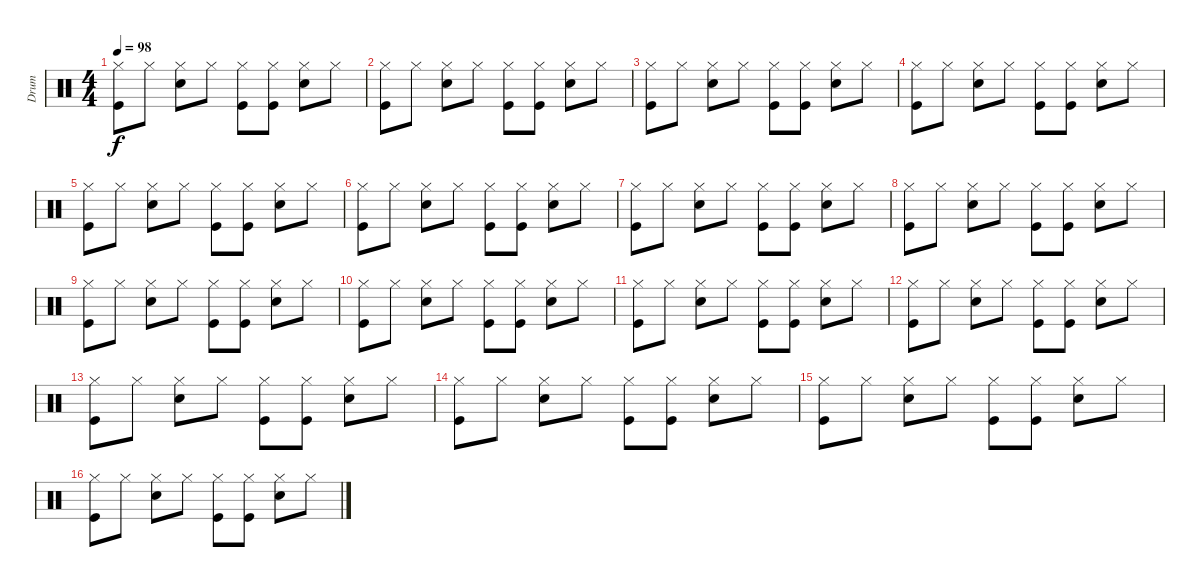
\track ("Drum" "Drum") {instrument percussion}
\staff {score}
\articulation defaults
\ts (4 4)
\tempo 98
\clef neutral
\ks c
("Hi-Hat (closed)" "Kick (hit)").8{dy f} "Hi-Hat (closed)".8 ("Hi-Hat (closed)" "Snare (hit) 2").8 "Hi-Hat (closed)".8 ("Hi-Hat (closed)" "Kick (hit)").8 ("Hi-Hat (closed)" "Kick (hit)").8 ("Hi-Hat (closed)" "Snare (hit) 2").8 "Hi-Hat (closed)".8 |
("Hi-Hat (closed)" "Kick (hit)").8 "Hi-Hat (closed)".8 ("Hi-Hat (closed)" "Snare (hit) 2").8 "Hi-Hat (closed)".8 ("Hi-Hat (closed)" "Kick (hit)").8 ("Hi-Hat (closed)" "Kick (hit)").8 ("Hi-Hat (closed)" "Snare (hit) 2").8 "Hi-Hat (closed)".8 |
("Hi-Hat (closed)" "Kick (hit)").8 "Hi-Hat (closed)".8 ("Hi-Hat (closed)" "Snare (hit) 2").8 "Hi-Hat (closed)".8 ("Hi-Hat (closed)" "Kick (hit)").8 ("Hi-Hat (closed)" "Kick (hit)").8 ("Hi-Hat (closed)" "Snare (hit) 2").8 "Hi-Hat (closed)".8 |
("Hi-Hat (closed)" "Kick (hit)").8 "Hi-Hat (closed)".8 ("Hi-Hat (closed)" "Snare (hit) 2").8 "Hi-Hat (closed)".8 ("Hi-Hat (closed)" "Kick (hit)").8 ("Hi-Hat (closed)" "Kick (hit)").8 ("Hi-Hat (closed)" "Snare (hit) 2").8 "Hi-Hat (closed)".8 |
("Hi-Hat (closed)" "Kick (hit)").8 "Hi-Hat (closed)".8 ("Hi-Hat (closed)" "Snare (hit) 2").8 "Hi-Hat (closed)".8 ("Hi-Hat (closed)" "Kick (hit)").8 ("Hi-Hat (closed)" "Kick (hit)").8 ("Hi-Hat (closed)" "Snare (hit) 2").8 "Hi-Hat (closed)".8 |
("Hi-Hat (closed)" "Kick (hit)").8 "Hi-Hat (closed)".8 ("Hi-Hat (closed)" "Snare (hit) 2").8 "Hi-Hat (closed)".8 ("Hi-Hat (closed)" "Kick (hit)").8 ("Hi-Hat (closed)" "Kick (hit)").8 ("Hi-Hat (closed)" "Snare (hit) 2").8 "Hi-Hat (closed)".8 |
("Hi-Hat (closed)" "Kick (hit)").8 "Hi-Hat (closed)".8 ("Hi-Hat (closed)" "Snare (hit) 2").8 "Hi-Hat (closed)".8 ("Hi-Hat (closed)" "Kick (hit)").8 ("Hi-Hat (closed)" "Kick (hit)").8 ("Hi-Hat (closed)" "Snare (hit) 2").8 "Hi-Hat (closed)".8 |
("Hi-Hat (closed)" "Kick (hit)").8 "Hi-Hat (closed)".8 ("Hi-Hat (closed)" "Snare (hit) 2").8 "Hi-Hat (closed)".8 ("Hi-Hat (closed)" "Kick (hit)").8 ("Hi-Hat (closed)" "Kick (hit)").8 ("Hi-Hat (closed)" "Snare (hit) 2").8 "Hi-Hat (closed)".8 |
("Hi-Hat (closed)" "Kick (hit)").8 "Hi-Hat (closed)".8 ("Hi-Hat (closed)" "Snare (hit) 2").8 "Hi-Hat (closed)".8 ("Hi-Hat (closed)" "Kick (hit)").8 ("Hi-Hat (closed)" "Kick (hit)").8 ("Hi-Hat (closed)" "Snare (hit) 2").8 "Hi-Hat (closed)".8 |
("Hi-Hat (closed)" "Kick (hit)").8 "Hi-Hat (closed)".8 ("Hi-Hat (closed)" "Snare (hit) 2").8 "Hi-Hat (closed)".8 ("Hi-Hat (closed)" "Kick (hit)").8 ("Hi-Hat (closed)" "Kick (hit)").8 ("Hi-Hat (closed)" "Snare (hit) 2").8 "Hi-Hat (closed)".8 |
("Hi-Hat (closed)" "Kick (hit)").8 "Hi-Hat (closed)".8 ("Hi-Hat (closed)" "Snare (hit) 2").8 "Hi-Hat (closed)".8 ("Hi-Hat (closed)" "Kick (hit)").8 ("Hi-Hat (closed)" "Kick (hit)").8 ("Hi-Hat (closed)" "Snare (hit) 2").8 "Hi-Hat (closed)".8 |
("Hi-Hat (closed)" "Kick (hit)").8 "Hi-Hat (closed)".8 ("Hi-Hat (closed)" "Snare (hit) 2").8 "Hi-Hat (closed)".8 ("Hi-Hat (closed)" "Kick (hit)").8 ("Hi-Hat (closed)" "Kick (hit)").8 ("Hi-Hat (closed)" "Snare (hit) 2").8 "Hi-Hat (closed)".8 |
("Hi-Hat (closed)" "Kick (hit)").8 "Hi-Hat (closed)".8 ("Hi-Hat (closed)" "Snare (hit) 2").8 "Hi-Hat (closed)".8 ("Hi-Hat (closed)" "Kick (hit)").8 ("Hi-Hat (closed)" "Kick (hit)").8 ("Hi-Hat (closed)" "Snare (hit) 2").8 "Hi-Hat (closed)".8 |
("Hi-Hat (closed)" "Kick (hit)").8 "Hi-Hat (closed)".8 ("Hi-Hat (closed)" "Snare (hit) 2").8 "Hi-Hat (closed)".8 ("Hi-Hat (closed)" "Kick (hit)").8 ("Hi-Hat (closed)" "Kick (hit)").8 ("Hi-Hat (closed)" "Snare (hit) 2").8 "Hi-Hat (closed)".8 |
("Hi-Hat (closed)" "Kick (hit)").8 "Hi-Hat (closed)".8 ("Hi-Hat (closed)" "Snare (hit) 2").8 "Hi-Hat (closed)".8 ("Hi-Hat (closed)" "Kick (hit)").8 ("Hi-Hat (closed)" "Kick (hit)").8 ("Hi-Hat (closed)" "Snare (hit) 2").8 "Hi-Hat (closed)".8 |
("Hi-Hat (closed)" "Kick (hit)").8 "Hi-Hat (closed)".8 ("Hi-Hat (closed)" "Snare (hit) 2").8 "Hi-Hat (closed)".8 ("Hi-Hat (closed)" "Kick (hit)").8 ("Hi-Hat (closed)" "Kick (hit)").8 ("Hi-Hat (closed)" "Snare (hit) 2").8 "Hi-Hat (closed)".8
